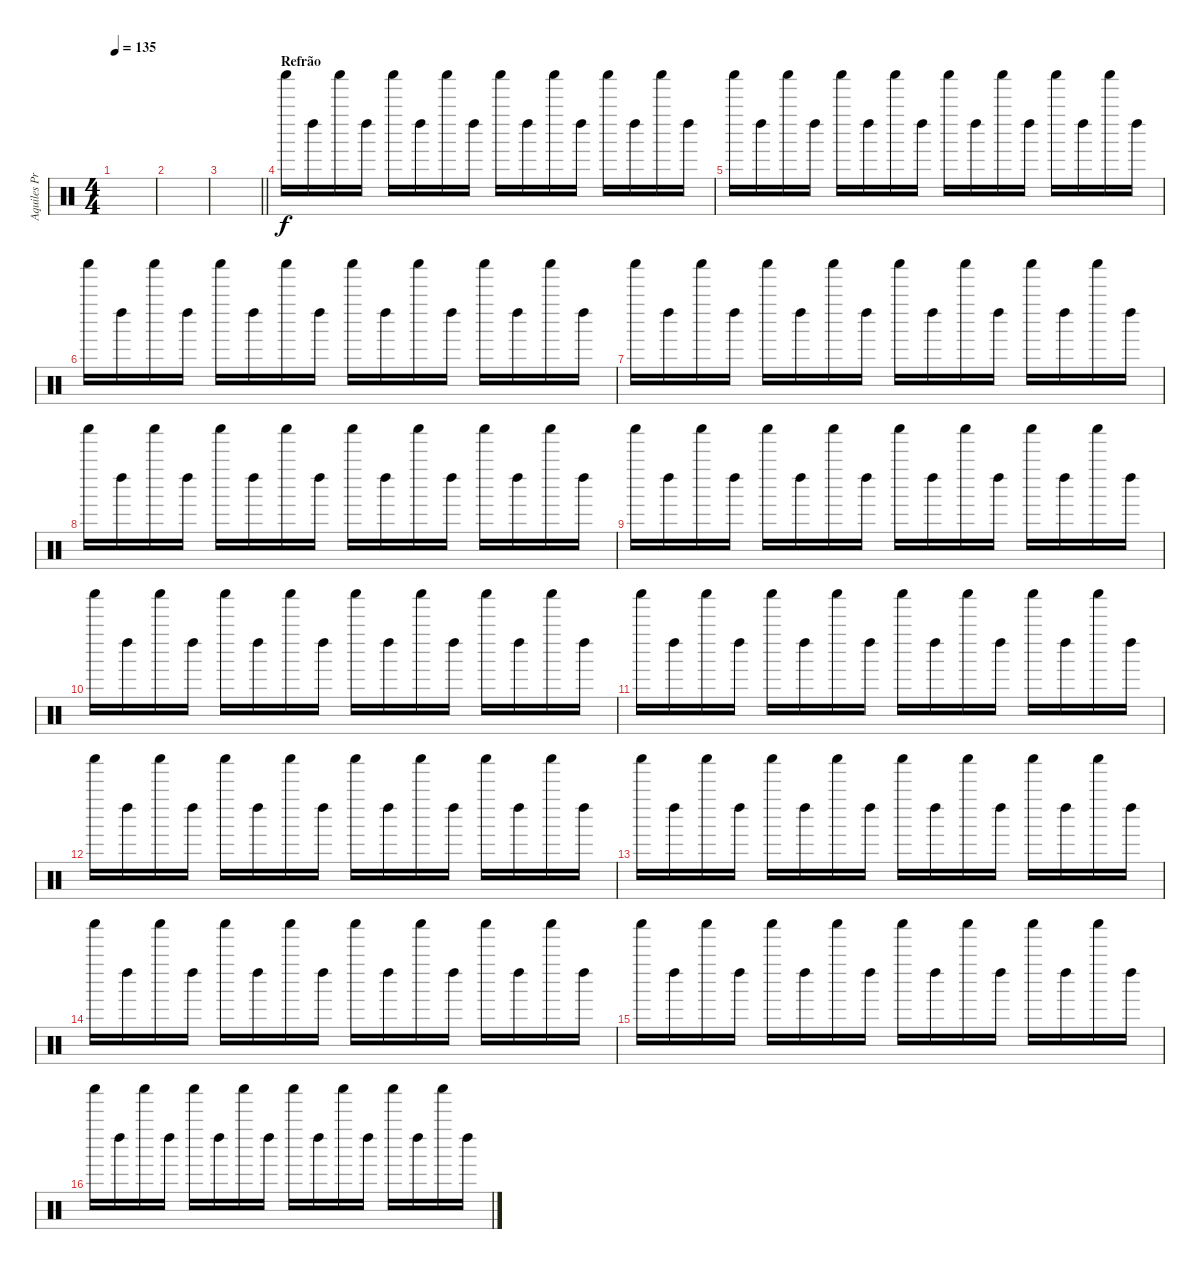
\track ("Aquiles Priester" "Aquiles Pr") {instrument percussion}
\staff {score}
\articulation defaults
\ts (4 4)
\tempo 135
\clef neutral
\ks c
|
|
\barLineRight lightlight
|
\section ("" "Refrão")
"Shaker (hit)".16 "Left Maraca (hit)".16 "Shaker (hit)".16 "Left Maraca (hit)".16 "Shaker (hit)".16 "Left Maraca (hit)".16 "Shaker (hit)".16 "Left Maraca (hit)".16 "Shaker (hit)".16 "Left Maraca (hit)".16 "Shaker (hit)".16 "Left Maraca (hit)".16 "Shaker (hit)".16 "Left Maraca (hit)".16 "Shaker (hit)".16 "Left Maraca (hit)".16 |
"Shaker (hit)".16 "Left Maraca (hit)".16 "Shaker (hit)".16 "Left Maraca (hit)".16 "Shaker (hit)".16 "Left Maraca (hit)".16 "Shaker (hit)".16 "Left Maraca (hit)".16 "Shaker (hit)".16 "Left Maraca (hit)".16 "Shaker (hit)".16 "Left Maraca (hit)".16 "Shaker (hit)".16 "Left Maraca (hit)".16 "Shaker (hit)".16 "Left Maraca (hit)".16 |
"Shaker (hit)".16 "Left Maraca (hit)".16 "Shaker (hit)".16 "Left Maraca (hit)".16 "Shaker (hit)".16 "Left Maraca (hit)".16 "Shaker (hit)".16 "Left Maraca (hit)".16 "Shaker (hit)".16 "Left Maraca (hit)".16 "Shaker (hit)".16 "Left Maraca (hit)".16 "Shaker (hit)".16 "Left Maraca (hit)".16 "Shaker (hit)".16 "Left Maraca (hit)".16 |
"Shaker (hit)".16 "Left Maraca (hit)".16 "Shaker (hit)".16 "Left Maraca (hit)".16 "Shaker (hit)".16 "Left Maraca (hit)".16 "Shaker (hit)".16 "Left Maraca (hit)".16 "Shaker (hit)".16 "Left Maraca (hit)".16 "Shaker (hit)".16 "Left Maraca (hit)".16 "Shaker (hit)".16 "Left Maraca (hit)".16 "Shaker (hit)".16 "Left Maraca (hit)".16 |
"Shaker (hit)".16 "Left Maraca (hit)".16 "Shaker (hit)".16 "Left Maraca (hit)".16 "Shaker (hit)".16 "Left Maraca (hit)".16 "Shaker (hit)".16 "Left Maraca (hit)".16 "Shaker (hit)".16 "Left Maraca (hit)".16 "Shaker (hit)".16 "Left Maraca (hit)".16 "Shaker (hit)".16 "Left Maraca (hit)".16 "Shaker (hit)".16 "Left Maraca (hit)".16 |
"Shaker (hit)".16 "Left Maraca (hit)".16 "Shaker (hit)".16 "Left Maraca (hit)".16 "Shaker (hit)".16 "Left Maraca (hit)".16 "Shaker (hit)".16 "Left Maraca (hit)".16 "Shaker (hit)".16 "Left Maraca (hit)".16 "Shaker (hit)".16 "Left Maraca (hit)".16 "Shaker (hit)".16 "Left Maraca (hit)".16 "Shaker (hit)".16 "Left Maraca (hit)".16 |
"Shaker (hit)".16 "Left Maraca (hit)".16 "Shaker (hit)".16 "Left Maraca (hit)".16 "Shaker (hit)".16 "Left Maraca (hit)".16 "Shaker (hit)".16 "Left Maraca (hit)".16 "Shaker (hit)".16 "Left Maraca (hit)".16 "Shaker (hit)".16 "Left Maraca (hit)".16 "Shaker (hit)".16 "Left Maraca (hit)".16 "Shaker (hit)".16 "Left Maraca (hit)".16 |
"Shaker (hit)".16 "Left Maraca (hit)".16 "Shaker (hit)".16 "Left Maraca (hit)".16 "Shaker (hit)".16 "Left Maraca (hit)".16 "Shaker (hit)".16 "Left Maraca (hit)".16 "Shaker (hit)".16 "Left Maraca (hit)".16 "Shaker (hit)".16 "Left Maraca (hit)".16 "Shaker (hit)".16 "Left Maraca (hit)".16 "Shaker (hit)".16 "Left Maraca (hit)".16 |
"Shaker (hit)".16 "Left Maraca (hit)".16 "Shaker (hit)".16 "Left Maraca (hit)".16 "Shaker (hit)".16 "Left Maraca (hit)".16 "Shaker (hit)".16 "Left Maraca (hit)".16 "Shaker (hit)".16 "Left Maraca (hit)".16 "Shaker (hit)".16 "Left Maraca (hit)".16 "Shaker (hit)".16 "Left Maraca (hit)".16 "Shaker (hit)".16 "Left Maraca (hit)".16 |
"Shaker (hit)".16 "Left Maraca (hit)".16 "Shaker (hit)".16 "Left Maraca (hit)".16 "Shaker (hit)".16 "Left Maraca (hit)".16 "Shaker (hit)".16 "Left Maraca (hit)".16 "Shaker (hit)".16 "Left Maraca (hit)".16 "Shaker (hit)".16 "Left Maraca (hit)".16 "Shaker (hit)".16 "Left Maraca (hit)".16 "Shaker (hit)".16 "Left Maraca (hit)".16 |
"Shaker (hit)".16 "Left Maraca (hit)".16 "Shaker (hit)".16 "Left Maraca (hit)".16 "Shaker (hit)".16 "Left Maraca (hit)".16 "Shaker (hit)".16 "Left Maraca (hit)".16 "Shaker (hit)".16 "Left Maraca (hit)".16 "Shaker (hit)".16 "Left Maraca (hit)".16 "Shaker (hit)".16 "Left Maraca (hit)".16 "Shaker (hit)".16 "Left Maraca (hit)".16 |
"Shaker (hit)".16 "Left Maraca (hit)".16 "Shaker (hit)".16 "Left Maraca (hit)".16 "Shaker (hit)".16 "Left Maraca (hit)".16 "Shaker (hit)".16 "Left Maraca (hit)".16 "Shaker (hit)".16 "Left Maraca (hit)".16 "Shaker (hit)".16 "Left Maraca (hit)".16 "Shaker (hit)".16 "Left Maraca (hit)".16 "Shaker (hit)".16 "Left Maraca (hit)".16 |
"Shaker (hit)".16 "Left Maraca (hit)".16 "Shaker (hit)".16 "Left Maraca (hit)".16 "Shaker (hit)".16 "Left Maraca (hit)".16 "Shaker (hit)".16 "Left Maraca (hit)".16 "Shaker (hit)".16 "Left Maraca (hit)".16 "Shaker (hit)".16 "Left Maraca (hit)".16 "Shaker (hit)".16 "Left Maraca (hit)".16 "Shaker (hit)".16 "Left Maraca (hit)".16
